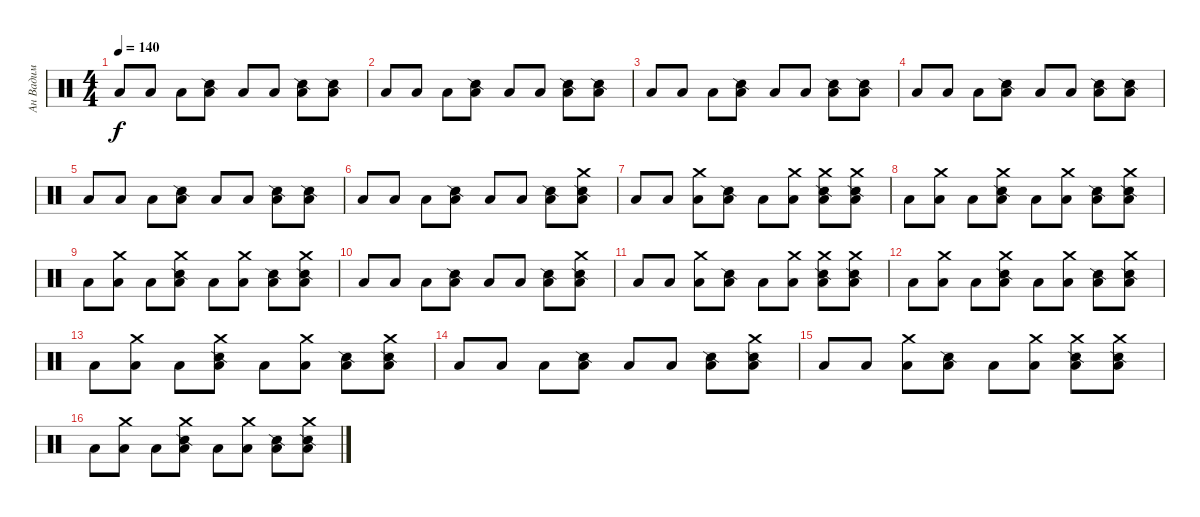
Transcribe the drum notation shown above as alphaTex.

\track ("Ан Вадим" "Ан Вадим") {instrument percussion}
\staff {score}
\articulation defaults
\ts (4 4)
\tempo 140
\clef neutral
\ks c "Low Floor Tom (hit)".8{dy f} "Low Floor Tom (hit)".8 "Low Floor Tom (hit)".8
("Snare (side stick) 2" "Low Floor Tom (hit)").8 "Low Floor Tom (hit)".8 "Low Floor Tom (hit)".8 ("Snare (side stick) 2" "Low Floor Tom (hit)").8 ("Snare (side stick) 2" "Low Floor Tom (hit)").8 |
"Low Floor Tom (hit)".8 "Low Floor Tom (hit)".8 "Low Floor Tom (hit)".8 ("Snare (side stick) 2" "Low Floor Tom (hit)").8 "Low Floor Tom (hit)".8 "Low Floor Tom (hit)".8 ("Snare (side stick) 2" "Low Floor Tom (hit)").8 ("Snare (side stick) 2" "Low Floor Tom (hit)").8 |
"Low Floor Tom (hit)".8 "Low Floor Tom (hit)".8 "Low Floor Tom (hit)".8 ("Snare (side stick) 2" "Low Floor Tom (hit)").8 "Low Floor Tom (hit)".8 "Low Floor Tom (hit)".8 ("Snare (side stick) 2" "Low Floor Tom (hit)").8 ("Snare (side stick) 2" "Low Floor Tom (hit)").8 |
"Low Floor Tom (hit)".8 "Low Floor Tom (hit)".8 "Low Floor Tom (hit)".8 ("Snare (side stick) 2" "Low Floor Tom (hit)").8 "Low Floor Tom (hit)".8 "Low Floor Tom (hit)".8 ("Snare (side stick) 2" "Low Floor Tom (hit)").8 ("Snare (side stick) 2" "Low Floor Tom (hit)").8 |
"Low Floor Tom (hit)".8 "Low Floor Tom (hit)".8 "Low Floor Tom (hit)".8 ("Snare (side stick) 2" "Low Floor Tom (hit)").8 "Low Floor Tom (hit)".8 "Low Floor Tom (hit)".8 ("Snare (side stick) 2" "Low Floor Tom (hit)").8 ("Snare (side stick) 2" "Low Floor Tom (hit)").8 |
"Low Floor Tom (hit)".8 "Low Floor Tom (hit)".8 "Low Floor Tom (hit)".8 ("Snare (side stick) 2" "Low Floor Tom (hit)").8 "Low Floor Tom (hit)".8 "Low Floor Tom (hit)".8 ("Snare (side stick) 2" "Low Floor Tom (hit)").8 ("Snare (side stick) 2" "Low Floor Tom (hit)" "Crash medium (hit)").8 |
"Low Floor Tom (hit)".8 "Low Floor Tom (hit)".8 ("Low Floor Tom (hit)" "Crash medium (hit)").8 ("Snare (side stick) 2" "Low Floor Tom (hit)").8 "Low Floor Tom (hit)".8 ("Low Floor Tom (hit)" "Crash medium (hit)").8 ("Snare (side stick) 2" "Low Floor Tom (hit)" "Crash medium (hit)").8 ("Snare (side stick) 2" "Low Floor Tom (hit)" "Crash medium (hit)").8 |
"Low Floor Tom (hit)".8 ("Low Floor Tom (hit)" "Crash medium (hit)").8 "Low Floor Tom (hit)".8 ("Snare (side stick) 2" "Low Floor Tom (hit)" "Crash medium (hit)").8 "Low Floor Tom (hit)".8 ("Low Floor Tom (hit)" "Crash medium (hit)").8 ("Snare (side stick) 2" "Low Floor Tom (hit)").8 ("Snare (side stick) 2" "Low Floor Tom (hit)" "Crash medium (hit)").8 |
"Low Floor Tom (hit)".8 ("Low Floor Tom (hit)" "Crash medium (hit)").8 "Low Floor Tom (hit)".8 ("Snare (side stick) 2" "Low Floor Tom (hit)" "Crash medium (hit)").8 "Low Floor Tom (hit)".8 ("Low Floor Tom (hit)" "Crash medium (hit)").8 ("Snare (side stick) 2" "Low Floor Tom (hit)").8 ("Snare (side stick) 2" "Low Floor Tom (hit)" "Crash medium (hit)").8 |
"Low Floor Tom (hit)".8 "Low Floor Tom (hit)".8 "Low Floor Tom (hit)".8 ("Snare (side stick) 2" "Low Floor Tom (hit)").8 "Low Floor Tom (hit)".8 "Low Floor Tom (hit)".8 ("Snare (side stick) 2" "Low Floor Tom (hit)").8 ("Snare (side stick) 2" "Low Floor Tom (hit)" "Crash medium (hit)").8 |
"Low Floor Tom (hit)".8 "Low Floor Tom (hit)".8 ("Low Floor Tom (hit)" "Crash medium (hit)").8 ("Snare (side stick) 2" "Low Floor Tom (hit)").8 "Low Floor Tom (hit)".8 ("Low Floor Tom (hit)" "Crash medium (hit)").8 ("Snare (side stick) 2" "Low Floor Tom (hit)" "Crash medium (hit)").8 ("Snare (side stick) 2" "Low Floor Tom (hit)" "Crash medium (hit)").8 |
"Low Floor Tom (hit)".8 ("Low Floor Tom (hit)" "Crash medium (hit)").8 "Low Floor Tom (hit)".8 ("Snare (side stick) 2" "Low Floor Tom (hit)" "Crash medium (hit)").8 "Low Floor Tom (hit)".8 ("Low Floor Tom (hit)" "Crash medium (hit)").8 ("Snare (side stick) 2" "Low Floor Tom (hit)").8 ("Snare (side stick) 2" "Low Floor Tom (hit)" "Crash medium (hit)").8 |
"Low Floor Tom (hit)".8 ("Low Floor Tom (hit)" "Crash medium (hit)").8 "Low Floor Tom (hit)".8 ("Snare (side stick) 2" "Low Floor Tom (hit)" "Crash medium (hit)").8 "Low Floor Tom (hit)".8 ("Low Floor Tom (hit)" "Crash medium (hit)").8 ("Snare (side stick) 2" "Low Floor Tom (hit)").8 ("Snare (side stick) 2" "Low Floor Tom (hit)" "Crash medium (hit)").8 |
"Low Floor Tom (hit)".8 "Low Floor Tom (hit)".8 "Low Floor Tom (hit)".8 ("Snare (side stick) 2" "Low Floor Tom (hit)").8 "Low Floor Tom (hit)".8 "Low Floor Tom (hit)".8 ("Snare (side stick) 2" "Low Floor Tom (hit)").8 ("Snare (side stick) 2" "Low Floor Tom (hit)" "Crash medium (hit)").8 |
"Low Floor Tom (hit)".8 "Low Floor Tom (hit)".8 ("Low Floor Tom (hit)" "Crash medium (hit)").8 ("Snare (side stick) 2" "Low Floor Tom (hit)").8 "Low Floor Tom (hit)".8 ("Low Floor Tom (hit)" "Crash medium (hit)").8 ("Snare (side stick) 2" "Low Floor Tom (hit)" "Crash medium (hit)").8 ("Snare (side stick) 2" "Low Floor Tom (hit)" "Crash medium (hit)").8 |
"Low Floor Tom (hit)".8 ("Low Floor Tom (hit)" "Crash medium (hit)").8 "Low Floor Tom (hit)".8 ("Snare (side stick) 2" "Low Floor Tom (hit)" "Crash medium (hit)").8 "Low Floor Tom (hit)".8 ("Low Floor Tom (hit)" "Crash medium (hit)").8 ("Snare (side stick) 2" "Low Floor Tom (hit)").8 ("Snare (side stick) 2" "Low Floor Tom (hit)" "Crash medium (hit)").8
